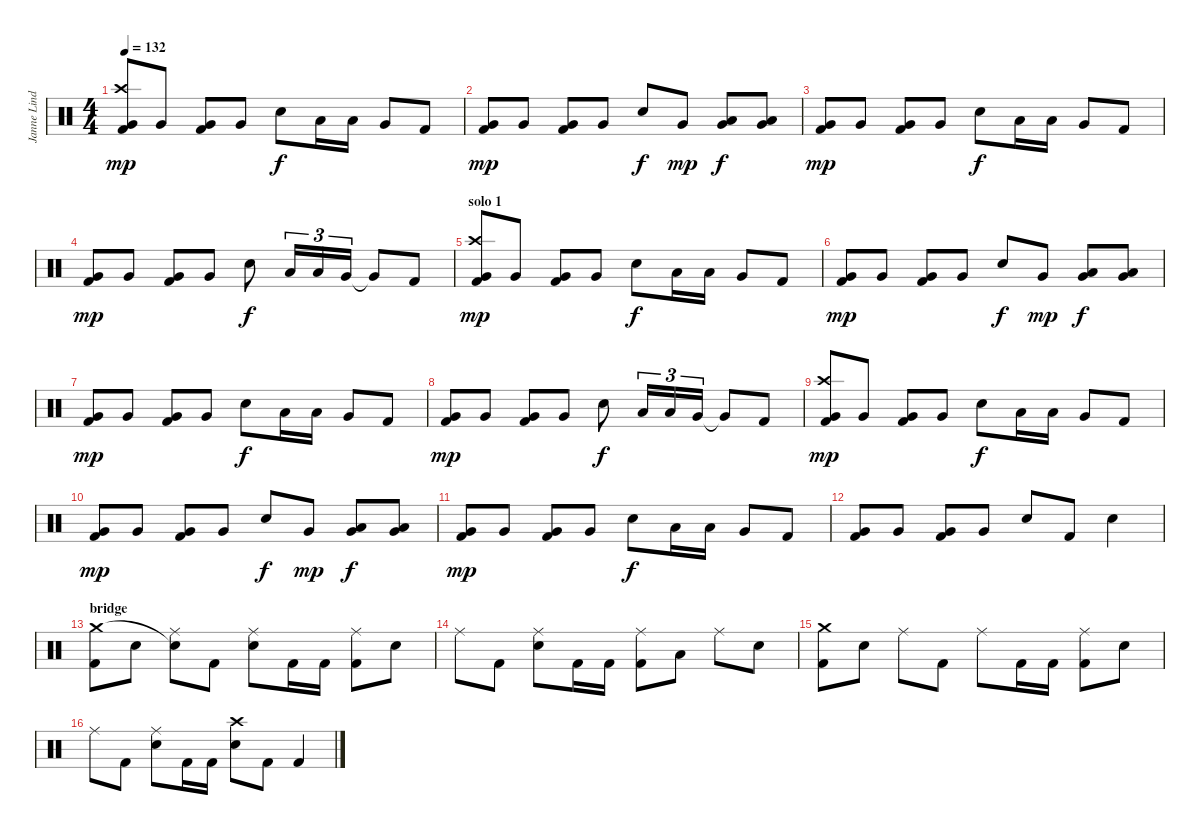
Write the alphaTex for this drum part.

\track ("Janne Lindh" "Janne Lind") {instrument percussion}
\staff {score}
\articulation defaults
\ts (4 4)
\tempo 132
\clef neutral
\ks c
("Kick (hit) 2" "Crash high (hit)" "Very Low Tom (hit)").8{dy mp} "Very Low Tom (hit)".8 ("Kick (hit) 2" "Very Low Tom (hit)").8 "Very Low Tom (hit)".8 "Snare (hit) 2".8{dy f} "Low Tom (hit)".16 "Low Tom (hit)".16 "Very Low Tom (hit)".8 "Kick (hit) 2".8 |
("Kick (hit) 2" "Very Low Tom (hit)").8{dy mp} "Very Low Tom (hit)".8 ("Kick (hit) 2" "Very Low Tom (hit)").8 "Very Low Tom (hit)".8 "Snare (hit) 2".8{dy f} "Very Low Tom (hit)".8{dy mp} ("Very Low Tom (hit)" "Low Tom (hit)").8{dy f} ("Very Low Tom (hit)" "Low Tom (hit)").8 |
("Kick (hit) 2" "Very Low Tom (hit)").8{dy mp} "Very Low Tom (hit)".8 ("Kick (hit) 2" "Very Low Tom (hit)").8 "Very Low Tom (hit)".8 "Snare (hit) 2".8{dy f} "Low Tom (hit)".16 "Low Tom (hit)".16 "Very Low Tom (hit)".8 "Kick (hit) 2".8 |
("Kick (hit) 2" "Very Low Tom (hit)").8{dy mp} "Very Low Tom (hit)".8 ("Kick (hit) 2" "Very Low Tom (hit)").8 "Very Low Tom (hit)".8 "Snare (hit) 2".8{dy f} "Low Tom (hit)".16{tu (3 2)} "Low Tom (hit)".16{tu (3 2)} "Very Low Tom (hit)".16{tu (3 2)} "Very Low Tom (hit)"{t}.8 "Kick (hit) 2".8 |
\section ("" "solo 1")
("Kick (hit) 2" "Crash high (hit)" "Very Low Tom (hit)").8{dy mp} "Very Low Tom (hit)".8 ("Kick (hit) 2" "Very Low Tom (hit)").8 "Very Low Tom (hit)".8 "Snare (hit) 2".8{dy f} "Low Tom (hit)".16 "Low Tom (hit)".16 "Very Low Tom (hit)".8 "Kick (hit) 2".8 |
("Kick (hit) 2" "Very Low Tom (hit)").8{dy mp} "Very Low Tom (hit)".8 ("Kick (hit) 2" "Very Low Tom (hit)").8 "Very Low Tom (hit)".8 "Snare (hit) 2".8{dy f} "Very Low Tom (hit)".8{dy mp} ("Very Low Tom (hit)" "Low Tom (hit)").8{dy f} ("Very Low Tom (hit)" "Low Tom (hit)").8 |
("Kick (hit) 2" "Very Low Tom (hit)").8{dy mp} "Very Low Tom (hit)".8 ("Kick (hit) 2" "Very Low Tom (hit)").8 "Very Low Tom (hit)".8 "Snare (hit) 2".8{dy f} "Low Tom (hit)".16 "Low Tom (hit)".16 "Very Low Tom (hit)".8 "Kick (hit) 2".8 |
("Kick (hit) 2" "Very Low Tom (hit)").8{dy mp} "Very Low Tom (hit)".8 ("Kick (hit) 2" "Very Low Tom (hit)").8 "Very Low Tom (hit)".8 "Snare (hit) 2".8{dy f} "Low Tom (hit)".16{tu (3 2)} "Low Tom (hit)".16{tu (3 2)} "Very Low Tom (hit)".16{tu (3 2)} "Very Low Tom (hit)"{t}.8 "Kick (hit) 2".8 |
("Kick (hit) 2" "Crash high (hit)" "Very Low Tom (hit)").8{dy mp} "Very Low Tom (hit)".8 ("Kick (hit) 2" "Very Low Tom (hit)").8 "Very Low Tom (hit)".8 "Snare (hit) 2".8{dy f} "Low Tom (hit)".16 "Low Tom (hit)".16 "Very Low Tom (hit)".8 "Kick (hit) 2".8 |
("Kick (hit) 2" "Very Low Tom (hit)").8{dy mp} "Very Low Tom (hit)".8 ("Kick (hit) 2" "Very Low Tom (hit)").8 "Very Low Tom (hit)".8 "Snare (hit) 2".8{dy f} "Very Low Tom (hit)".8{dy mp} ("Very Low Tom (hit)" "Low Tom (hit)").8{dy f} ("Very Low Tom (hit)" "Low Tom (hit)").8 |
("Kick (hit) 2" "Very Low Tom (hit)").8{dy mp} "Very Low Tom (hit)".8 ("Kick (hit) 2" "Very Low Tom (hit)").8 "Very Low Tom (hit)".8 "Snare (hit) 2".8{dy f} "Low Tom (hit)".16 "Low Tom (hit)".16 "Very Low Tom (hit)".8 "Kick (hit) 2".8 |
("Kick (hit) 2" "Very Low Tom (hit)").8 "Very Low Tom (hit)".8 ("Kick (hit) 2" "Very Low Tom (hit)").8 "Very Low Tom (hit)".8 "Snare (hit) 2".8 "Kick (hit) 2".8 "Snare (hit) 2".4 |
\section ("" "bridge")
("Kick (hit) 2" "Crash medium (hit)").8 "Snare (hit) 2".8 ("Ride (middle)" "Snare (hit)"{t}).8 "Kick (hit) 2".8 ("Ride (middle)" "Snare (hit) 2").8 "Kick (hit) 2".16 "Kick (hit) 2".16 ("Kick (hit) 2" "Ride (middle)").8 "Snare (hit) 2".8 |
"Ride (middle)".8 "Kick (hit) 2".8 ("Ride (middle)" "Snare (hit) 2").8 "Kick (hit) 2".16 "Kick (hit) 2".16 ("Kick (hit) 2" "Ride (middle)").8 "Low Tom (hit)".8 "Ride (middle)".8 "Snare (hit) 2".8 |
("Kick (hit) 2" "Crash medium (hit)").8 "Snare (hit) 2".8 "Ride (middle)".8 "Kick (hit) 2".8 "Ride (middle)".8 "Kick (hit) 2".16 "Kick (hit) 2".16 ("Kick (hit) 2" "Ride (middle)").8 "Snare (hit) 2".8 |
"Ride (middle)".8 "Kick (hit) 2".8 ("Ride (middle)" "Snare (hit) 2").8 "Kick (hit) 2".16 "Kick (hit) 2".16 ("Crash high (hit)" "Snare (hit) 2").8 "Kick (hit) 2".8 "Kick (hit) 2".4
